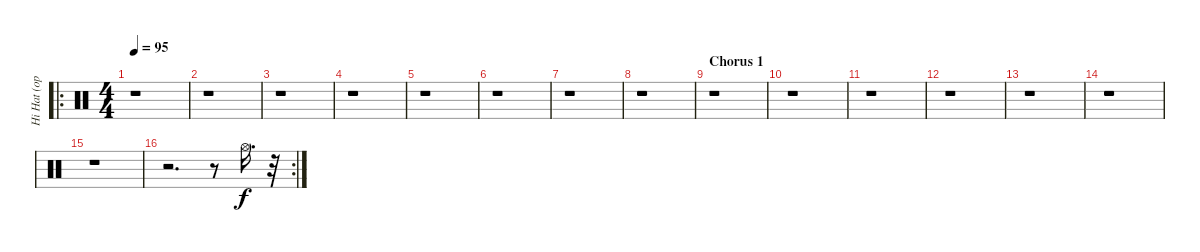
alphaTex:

\track ("Hi Hat (open)" "Hi Hat (op") {instrument percussion}
\staff {score}
\articulation defaults
\ro
\ts (4 4)
\tempo 95
\clef neutral
\ks c
r.1{dy f} |
r.1 |
r.1 |
r.1 |
r.1 |
r.1 |
r.1 |
r.1 |
\section ("" "Chorus 1")
r.1 |
r.1 |
r.1 |
r.1 |
r.1 |
r.1 |
r.1 |
\rc 2
r.2{d} r.8 "Hi-Hat (open)".16{d} r.32
